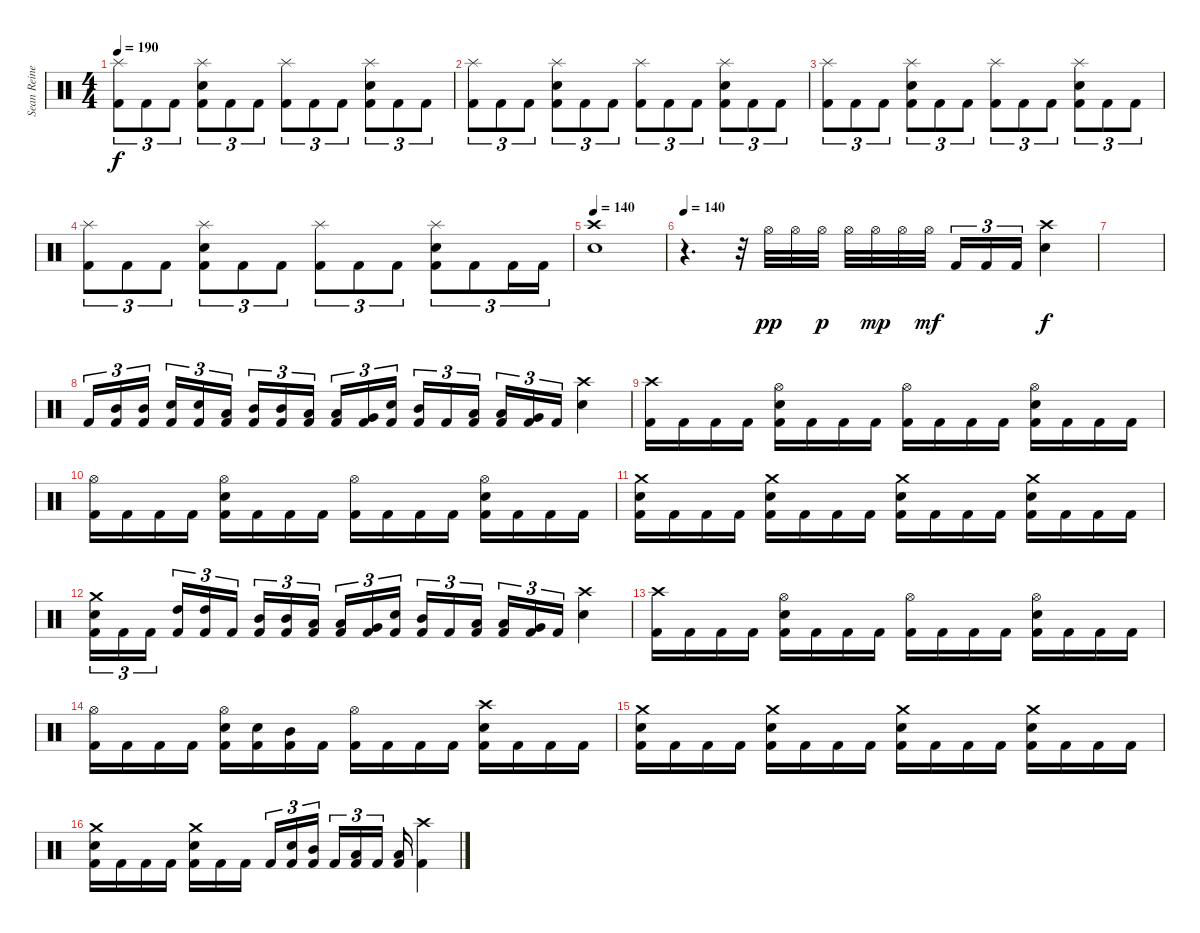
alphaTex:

\track ("Sean Reinert" "Sean Reine") {instrument percussion}
\staff {score}
\articulation defaults
\ts (4 4)
\tempo 190
\clef neutral
\ks c
("Splash (hit)" "Kick (hit) 2").8{tu (3 2) dy f} "Kick (hit) 2".8{tu (3 2)} "Kick (hit) 2".8{tu (3 2)} ("Splash (hit)" "Electric Snare (hit)" "Kick (hit) 2").8{tu (3 2)} "Kick (hit) 2".8{tu (3 2)} "Kick (hit) 2".8{tu (3 2)} ("Splash (hit)" "Kick (hit) 2").8{tu (3 2)} "Kick (hit) 2".8{tu (3 2)} "Kick (hit) 2".8{tu (3 2)} ("Splash (hit)" "Electric Snare (hit)" "Kick (hit) 2").8{tu (3 2)} "Kick (hit) 2".8{tu (3 2)} "Kick (hit) 2".8{tu (3 2)} |
("Splash (hit)" "Kick (hit) 2").8{tu (3 2)} "Kick (hit) 2".8{tu (3 2)} "Kick (hit) 2".8{tu (3 2)} ("Splash (hit)" "Electric Snare (hit)" "Kick (hit) 2").8{tu (3 2)} "Kick (hit) 2".8{tu (3 2)} "Kick (hit) 2".8{tu (3 2)} ("Splash (hit)" "Kick (hit) 2").8{tu (3 2)} "Kick (hit) 2".8{tu (3 2)} "Kick (hit) 2".8{tu (3 2)} ("Splash (hit)" "Electric Snare (hit)" "Kick (hit) 2").8{tu (3 2)} "Kick (hit) 2".8{tu (3 2)} "Kick (hit) 2".8{tu (3 2)} |
("Splash (hit)" "Kick (hit) 2").8{tu (3 2)} "Kick (hit) 2".8{tu (3 2)} "Kick (hit) 2".8{tu (3 2)} ("Splash (hit)" "Electric Snare (hit)" "Kick (hit) 2").8{tu (3 2)} "Kick (hit) 2".8{tu (3 2)} "Kick (hit) 2".8{tu (3 2)} ("Splash (hit)" "Kick (hit) 2").8{tu (3 2)} "Kick (hit) 2".8{tu (3 2)} "Kick (hit) 2".8{tu (3 2)} ("Splash (hit)" "Electric Snare (hit)" "Kick (hit) 2").8{tu (3 2)} "Kick (hit) 2".8{tu (3 2)} "Kick (hit) 2".8{tu (3 2)} |
("Splash (hit)" "Kick (hit) 2").8{tu (3 2)} "Kick (hit) 2".8{tu (3 2)} "Kick (hit) 2".8{tu (3 2)} ("Splash (hit)" "Electric Snare (hit)" "Kick (hit) 2").8{tu (3 2)} "Kick (hit) 2".8{tu (3 2)} "Kick (hit) 2".8{tu (3 2)} ("Splash (hit)" "Kick (hit) 2").8{tu (3 2)} "Kick (hit) 2".8{tu (3 2)} "Kick (hit) 2".8{tu (3 2)} ("Splash (hit)" "Electric Snare (hit)" "Kick (hit) 2").8{tu (3 2)} "Kick (hit) 2".8{tu (3 2)} "Kick (hit) 2".16{tu (3 2)} "Kick (hit) 2".16{tu (3 2)} |
\tempo 140
("Crash high (hit)" "Electric Snare (hit)").1 |
\tempo 140
r.4{d} r.32 "Hi-Hat (open)".32{dy pp} "Hi-Hat (open)".32 "Hi-Hat (open)".32{dy p} "Hi-Hat (open)".32 "Hi-Hat (open)".32{dy mp} "Hi-Hat (open)".32 "Hi-Hat (open)".32{dy mf beam splitsecondary} "Kick (hit) 2".16{tu (3 2)} "Kick (hit) 2".16{tu (3 2)} "Kick (hit) 2".16{tu (3 2)} ("Crash high (hit)" "Electric Snare (hit)").4{dy f} |
|
"Kick (hit) 2".16{tu (3 2)} ("Mid Tom (hit)" "Kick (hit) 2").16{tu (3 2)} ("Mid Tom (hit)" "Kick (hit) 2").16{tu (3 2) beam splitsecondary} ("Electric Snare (hit)" "Kick (hit) 2").16{tu (3 2)} ("Electric Snare (hit)" "Kick (hit) 2").16{tu (3 2)} ("Low Tom (hit)" "Kick (hit) 2").16{tu (3 2)} ("Mid Tom (hit)" "Kick (hit) 2").16{tu (3 2)} ("Mid Tom (hit)" "Kick (hit) 2").16{tu (3 2)} ("Low Tom (hit)" "Kick (hit) 2").16{tu (3 2) beam splitsecondary} ("Low Tom (hit)" "Kick (hit) 2").16{tu (3 2)} ("Very Low Tom (hit)" "Kick (hit) 2").16{tu (3 2)} ("Electric Snare (hit)" "Kick (hit) 2").16{tu (3 2)} ("Mid Tom (hit)" "Kick (hit) 2").16{tu (3 2)} "Kick (hit) 2".16{tu (3 2)} ("Low Tom (hit)" "Kick (hit) 2").16{tu (3 2) beam splitsecondary} ("Low Tom (hit)" "Kick (hit) 2").16{tu (3 2)} ("Very Low Tom (hit)" "Kick (hit) 2").16{tu (3 2)} "Kick (hit) 2".16{tu (3 2)} ("Crash high (hit)" "Electric Snare (hit)").4 |
("Crash high (hit)" "Kick (hit) 2").16 "Kick (hit) 2".16 "Kick (hit) 2".16 "Kick (hit) 2".16 ("Hi-Hat (open)" "Electric Snare (hit)" "Kick (hit) 2").16 "Kick (hit) 2".16 "Kick (hit) 2".16 "Kick (hit) 2".16 ("Hi-Hat (open)" "Kick (hit) 2").16 "Kick (hit) 2".16 "Kick (hit) 2".16 "Kick (hit) 2".16 ("Hi-Hat (open)" "Electric Snare (hit)" "Kick (hit) 2").16 "Kick (hit) 2".16 "Kick (hit) 2".16 "Kick (hit) 2".16 |
("Hi-Hat (open)" "Kick (hit) 2").16 "Kick (hit) 2".16 "Kick (hit) 2".16 "Kick (hit) 2".16 ("Hi-Hat (open)" "Electric Snare (hit)" "Kick (hit) 2").16 "Kick (hit) 2".16 "Kick (hit) 2".16 "Kick (hit) 2".16 ("Hi-Hat (open)" "Kick (hit) 2").16 "Kick (hit) 2".16 "Kick (hit) 2".16 "Kick (hit) 2".16 ("Hi-Hat (open)" "Electric Snare (hit)" "Kick (hit) 2").16 "Kick (hit) 2".16 "Kick (hit) 2".16 "Kick (hit) 2".16 |
("Crash medium (hit)" "Electric Snare (hit)" "Kick (hit) 2").16 "Kick (hit) 2".16 "Kick (hit) 2".16 "Kick (hit) 2".16 ("Crash medium (hit)" "Electric Snare (hit)" "Kick (hit) 2").16 "Kick (hit) 2".16 "Kick (hit) 2".16 "Kick (hit) 2".16 ("Crash medium (hit)" "Electric Snare (hit)" "Kick (hit) 2").16 "Kick (hit) 2".16 "Kick (hit) 2".16 "Kick (hit) 2".16 ("Crash medium (hit)" "Electric Snare (hit)" "Kick (hit) 2").16 "Kick (hit) 2".16 "Kick (hit) 2".16 "Kick (hit) 2".16 |
("Crash medium (hit)" "Electric Snare (hit)" "Kick (hit) 2").16{tu (3 2)} "Kick (hit) 2".16{tu (3 2)} "Kick (hit) 2".16{tu (3 2) beam splitsecondary} ("High Tom (hit)" "Kick (hit) 2").16{tu (3 2)} ("High Tom (hit)" "Kick (hit) 2").16{tu (3 2)} "Kick (hit) 2".16{tu (3 2)} ("Mid Tom (hit)" "Kick (hit) 2").16{tu (3 2)} ("Mid Tom (hit)" "Kick (hit) 2").16{tu (3 2)} ("Low Tom (hit)" "Kick (hit) 2").16{tu (3 2) beam splitsecondary} ("Low Tom (hit)" "Kick (hit) 2").16{tu (3 2)} ("Very Low Tom (hit)" "Kick (hit) 2").16{tu (3 2)} ("Electric Snare (hit)" "Kick (hit) 2").16{tu (3 2)} ("Mid Tom (hit)" "Kick (hit) 2").16{tu (3 2)} "Kick (hit) 2".16{tu (3 2)} ("Low Tom (hit)" "Kick (hit) 2").16{tu (3 2) beam splitsecondary} ("Low Tom (hit)" "Kick (hit) 2").16{tu (3 2)} ("Very Low Tom (hit)" "Kick (hit) 2").16{tu (3 2)} "Kick (hit) 2".16{tu (3 2)} ("Crash high (hit)" "Electric Snare (hit)").4 |
("Crash high (hit)" "Kick (hit) 2").16 "Kick (hit) 2".16 "Kick (hit) 2".16 "Kick (hit) 2".16 ("Hi-Hat (open)" "Electric Snare (hit)" "Kick (hit) 2").16 "Kick (hit) 2".16 "Kick (hit) 2".16 "Kick (hit) 2".16 ("Hi-Hat (open)" "Kick (hit) 2").16 "Kick (hit) 2".16 "Kick (hit) 2".16 "Kick (hit) 2".16 ("Hi-Hat (open)" "Electric Snare (hit)" "Kick (hit) 2").16 "Kick (hit) 2".16 "Kick (hit) 2".16 "Kick (hit) 2".16 |
("Hi-Hat (open)" "Kick (hit) 2").16 "Kick (hit) 2".16 "Kick (hit) 2".16 "Kick (hit) 2".16 ("Hi-Hat (open)" "Electric Snare (hit)" "Kick (hit) 2").16 ("Electric Snare (hit)" "Kick (hit) 2").16 ("Mid Tom (hit)" "Kick (hit) 2").16 "Kick (hit) 2".16 ("Hi-Hat (open)" "Kick (hit) 2").16 "Kick (hit) 2".16 "Kick (hit) 2".16 "Kick (hit) 2".16 ("Crash high (hit)" "Electric Snare (hit)" "Kick (hit) 2").16 "Kick (hit) 2".16 "Kick (hit) 2".16 "Kick (hit) 2".16 |
("Crash medium (hit)" "Electric Snare (hit)" "Kick (hit) 2").16 "Kick (hit) 2".16 "Kick (hit) 2".16 "Kick (hit) 2".16 ("Crash medium (hit)" "Electric Snare (hit)" "Kick (hit) 2").16 "Kick (hit) 2".16 "Kick (hit) 2".16 "Kick (hit) 2".16 ("Crash medium (hit)" "Electric Snare (hit)" "Kick (hit) 2").16 "Kick (hit) 2".16 "Kick (hit) 2".16 "Kick (hit) 2".16 ("Crash medium (hit)" "Electric Snare (hit)" "Kick (hit) 2").16 "Kick (hit) 2".16 "Kick (hit) 2".16 "Kick (hit) 2".16 |
("Crash medium (hit)" "Electric Snare (hit)" "Kick (hit) 2").16 "Kick (hit) 2".16 "Kick (hit) 2".16 "Kick (hit) 2".16 ("Crash medium (hit)" "Electric Snare (hit)" "Kick (hit) 2").16 "Kick (hit) 2".16 "Kick (hit) 2".16{beam splitsecondary} "Kick (hit) 2".16{tu (3 2)} ("Electric Snare (hit)" "Kick (hit) 2").16{tu (3 2)} ("Mid Tom (hit)" "Kick (hit) 2").16{tu (3 2) beam splitsecondary} "Kick (hit) 2".16{tu (3 2)} ("Low Tom (hit)" "Kick (hit) 2").16{tu (3 2)} "Kick (hit) 2".16{tu (3 2) beam splitsecondary} ("Low Tom (hit)" "Kick (hit) 2").16 ("Crash high (hit)" "Kick (hit) 2").4
